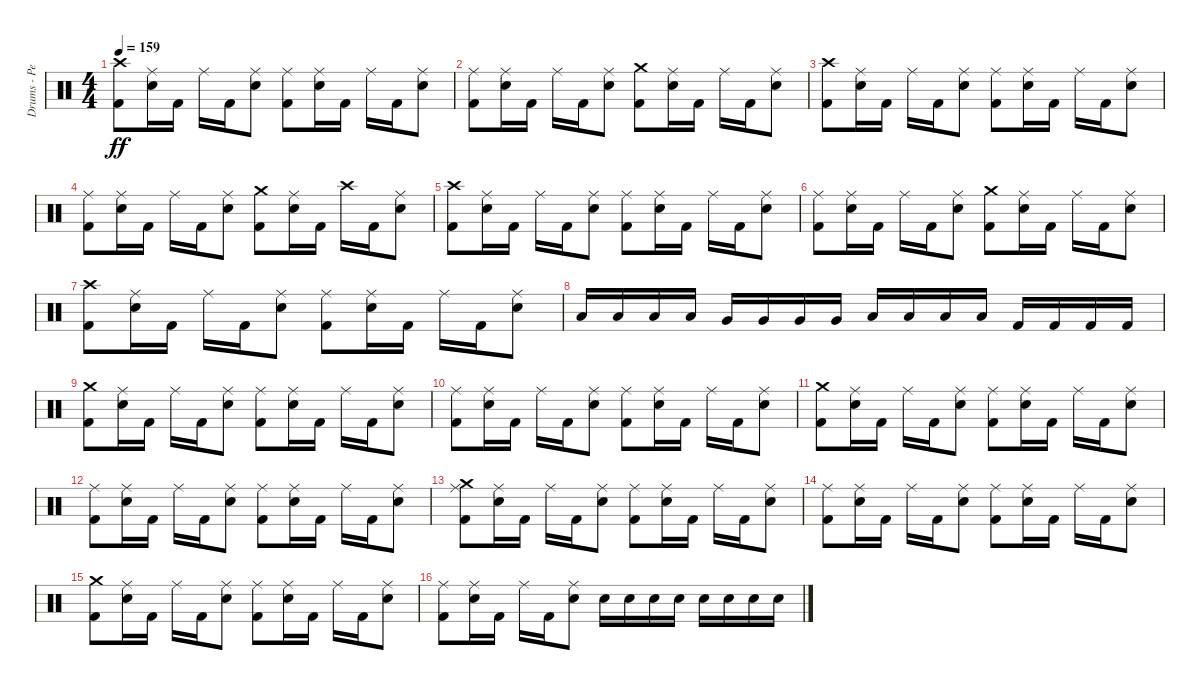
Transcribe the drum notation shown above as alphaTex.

\track ("Drums - Pete Finestone" "Drums - Pe") {instrument percussion}
\staff {score}
\articulation defaults
\ts (4 4)
\tempo 159
\clef neutral
\ks c
("Kick (hit) 2" "Crash high (hit)").8{dy ff} ("Electric Snare (hit)" "Ride (middle)").16 "Kick (hit) 2".16 "Ride (middle)".16 "Kick (hit) 2".16 ("Electric Snare (hit)" "Ride (middle)").8 ("Kick (hit) 2" "Ride (middle)").8 ("Electric Snare (hit)" "Ride (middle)").16 "Kick (hit) 2".16 "Ride (middle)".16 "Kick (hit) 2".16 ("Electric Snare (hit)" "Ride (middle)").8 |
("Ride (middle)" "Kick (hit) 2").8 ("Ride (middle)" "Electric Snare (hit)").16 "Kick (hit) 2".16 "Ride (middle)".16 "Kick (hit) 2".16 ("Ride (middle)" "Electric Snare (hit)").8 ("Crash medium (hit)" "Kick (hit) 2").8 ("Ride (middle)" "Electric Snare (hit)").16 "Kick (hit) 2".16 "Ride (middle)".16 "Kick (hit) 2".16 ("Ride (middle)" "Electric Snare (hit)").8 |
("Crash high (hit)" "Kick (hit) 2").8 ("Electric Snare (hit)" "Ride (middle)").16 "Kick (hit) 2".16 "Ride (middle)".16 "Kick (hit) 2".16 ("Electric Snare (hit)" "Ride (middle)").8 ("Kick (hit) 2" "Ride (middle)").8 ("Electric Snare (hit)" "Ride (middle)").16 "Kick (hit) 2".16 "Ride (middle)".16 "Kick (hit) 2".16 ("Electric Snare (hit)" "Ride (middle)").8 |
("Kick (hit) 2" "Ride (middle)").8 ("Electric Snare (hit)" "Ride (middle)").16 "Kick (hit) 2".16 "Ride (middle)".16 "Kick (hit) 2".16 ("Electric Snare (hit)" "Ride (middle)").8 ("Kick (hit) 2" "Crash medium (hit)").8 ("Electric Snare (hit)" "Ride (middle)").16 "Kick (hit) 2".16 "Crash high (hit)".16 "Kick (hit) 2".16 ("Electric Snare (hit)" "Ride (middle)").8 |
("Crash high (hit)" "Kick (hit) 2").8 ("Electric Snare (hit)" "Ride (middle)").16 "Kick (hit) 2".16 "Ride (middle)".16 "Kick (hit) 2".16 ("Electric Snare (hit)" "Ride (middle)").8 ("Kick (hit) 2" "Ride (middle)").8 ("Electric Snare (hit)" "Ride (middle)").16 "Kick (hit) 2".16 "Ride (middle)".16 "Kick (hit) 2".16 ("Electric Snare (hit)" "Ride (middle)").8 |
("Kick (hit) 2" "Ride (middle)").8 ("Electric Snare (hit)" "Ride (middle)").16 "Kick (hit) 2".16 "Ride (middle)".16 "Kick (hit) 2".16 ("Electric Snare (hit)" "Ride (middle)").8 ("Kick (hit) 2" "Crash medium (hit)").8 ("Electric Snare (hit)" "Ride (middle)").16 "Kick (hit) 2".16 "Ride (middle)".16 "Kick (hit) 2".16 ("Electric Snare (hit)" "Ride (middle)").8 |
("Kick (hit) 2" "Crash high (hit)").8 ("Electric Snare (hit)" "Ride (middle)").16 "Kick (hit) 2".16 "Ride (middle)".16 "Kick (hit) 2".16 ("Electric Snare (hit)" "Ride (middle)").8 ("Kick (hit) 2" "Ride (middle)").8 ("Electric Snare (hit)" "Ride (middle)").16 "Kick (hit) 2".16 "Ride (middle)".16 "Kick (hit) 2".16 ("Electric Snare (hit)" "Ride (middle)").8 |
"Low Tom (hit)".16 "Low Tom (hit)".16 "Low Tom (hit)".16 "Low Tom (hit)".16 "Very Low Tom (hit)".16 "Very Low Tom (hit)".16 "Very Low Tom (hit)".16 "Very Low Tom (hit)".16 "Low Floor Tom (hit)".16 "Low Floor Tom (hit)".16 "Low Floor Tom (hit)".16 "Low Floor Tom (hit)".16 "Kick (hit) 2".16 "Kick (hit) 2".16 "Kick (hit) 2".16 "Kick (hit) 2".16 |
("Kick (hit) 2" "Crash medium (hit)").8 ("Electric Snare (hit)" "Ride (middle)").16 "Kick (hit) 2".16 "Ride (middle)".16 "Kick (hit) 2".16 ("Electric Snare (hit)" "Ride (middle)").8 ("Kick (hit) 2" "Ride (middle)").8 ("Electric Snare (hit)" "Ride (middle)").16 "Kick (hit) 2".16 "Ride (middle)".16 "Kick (hit) 2".16 ("Electric Snare (hit)" "Ride (middle)").8 |
("Kick (hit) 2" "Ride (middle)").8 ("Electric Snare (hit)" "Ride (middle)").16 "Kick (hit) 2".16 "Ride (middle)".16 "Kick (hit) 2".16 ("Electric Snare (hit)" "Ride (middle)").8 ("Kick (hit) 2" "Ride (middle)").8 ("Electric Snare (hit)" "Ride (middle)").16 "Kick (hit) 2".16 "Ride (middle)".16 "Kick (hit) 2".16 ("Electric Snare (hit)" "Ride (middle)").8 |
("Kick (hit) 2" "Crash medium (hit)").8 ("Electric Snare (hit)" "Ride (middle)").16 "Kick (hit) 2".16 "Ride (middle)".16 "Kick (hit) 2".16 ("Electric Snare (hit)" "Ride (middle)").8 ("Kick (hit) 2" "Ride (middle)").8 ("Electric Snare (hit)" "Ride (middle)").16 "Kick (hit) 2".16 "Ride (middle)".16 "Kick (hit) 2".16 ("Electric Snare (hit)" "Ride (middle)").8 |
("Kick (hit) 2" "Ride (middle)").8 ("Electric Snare (hit)" "Ride (middle)").16 "Kick (hit) 2".16 "Ride (middle)".16 "Kick (hit) 2".16 ("Electric Snare (hit)" "Ride (middle)").8 ("Kick (hit) 2" "Ride (middle)").8 ("Electric Snare (hit)" "Ride (middle)").16 "Kick (hit) 2".16 "Ride (middle)".16 "Kick (hit) 2".16 ("Electric Snare (hit)" "Ride (middle)").8 |
("Ride (middle)" "Kick (hit) 2" "Crash medium (hit)").8 ("Electric Snare (hit)" "Ride (middle)").16 "Kick (hit) 2".16 "Ride (middle)".16 "Kick (hit) 2".16 ("Electric Snare (hit)" "Ride (middle)").8 ("Kick (hit) 2" "Ride (middle)").8 ("Electric Snare (hit)" "Ride (middle)").16 "Kick (hit) 2".16 "Ride (middle)".16 "Kick (hit) 2".16 ("Electric Snare (hit)" "Ride (middle)").8 |
("Kick (hit) 2" "Ride (middle)").8 ("Electric Snare (hit)" "Ride (middle)").16 "Kick (hit) 2".16 "Ride (middle)".16 "Kick (hit) 2".16 ("Electric Snare (hit)" "Ride (middle)").8 ("Kick (hit) 2" "Ride (middle)").8 ("Electric Snare (hit)" "Ride (middle)").16 "Kick (hit) 2".16 "Ride (middle)".16 "Kick (hit) 2".16 ("Electric Snare (hit)" "Ride (middle)").8 |
("Kick (hit) 2" "Crash medium (hit)").8 ("Electric Snare (hit)" "Ride (middle)").16 "Kick (hit) 2".16 "Ride (middle)".16 "Kick (hit) 2".16 ("Electric Snare (hit)" "Ride (middle)").8 ("Kick (hit) 2" "Ride (middle)").8 ("Electric Snare (hit)" "Ride (middle)").16 "Kick (hit) 2".16 "Ride (middle)".16 "Kick (hit) 2".16 ("Electric Snare (hit)" "Ride (middle)").8 |
("Kick (hit) 2" "Ride (middle)").8 ("Electric Snare (hit)" "Ride (middle)").16 "Kick (hit) 2".16 "Ride (middle)".16 "Kick (hit) 2".16 ("Electric Snare (hit)" "Ride (middle)").8 "Electric Snare (hit)".16 "Electric Snare (hit)".16 "Electric Snare (hit)".16 "Electric Snare (hit)".16 "Electric Snare (hit)".16 "Electric Snare (hit)".16 "Electric Snare (hit)".16 "Electric Snare (hit)".16
